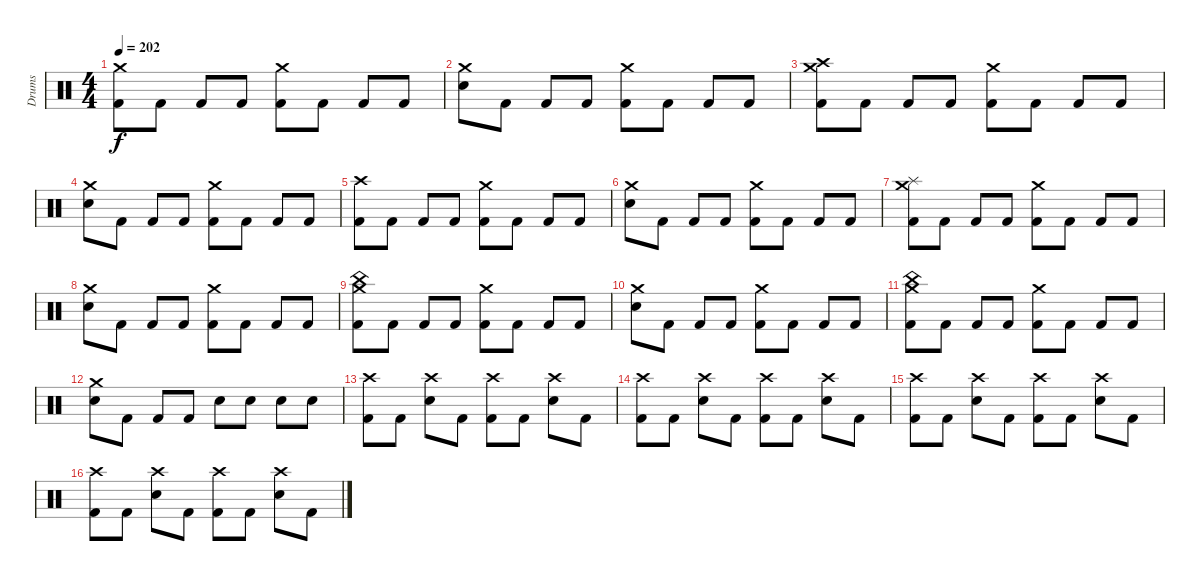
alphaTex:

\track ("Drums" "Drums") {instrument percussion}
\staff {score}
\articulation defaults
\ts (4 4)
\tempo 202
\clef neutral
\ks c
("Crash medium (hit)" "Kick (hit) 2").8{dy f} "Kick (hit) 2".8 "Kick (hit) 2".8 "Kick (hit) 2".8 ("Crash medium (hit)" "Kick (hit) 2").8 "Kick (hit) 2".8 "Kick (hit) 2".8 "Kick (hit) 2".8 |
("Crash medium (hit)" "Electric Snare (hit)").8 "Kick (hit) 2".8 "Kick (hit) 2".8 "Kick (hit) 2".8 ("Crash medium (hit)" "Kick (hit) 2").8 "Kick (hit) 2".8 "Kick (hit) 2".8 "Kick (hit) 2".8 |
("Crash medium (hit)" "Crash high (hit)" "Kick (hit) 2").8 "Kick (hit) 2".8 "Kick (hit) 2".8 "Kick (hit) 2".8 ("Crash medium (hit)" "Kick (hit) 2").8 "Kick (hit) 2".8 "Kick (hit) 2".8 "Kick (hit) 2".8 |
("Crash medium (hit)" "Electric Snare (hit)").8 "Kick (hit) 2".8 "Kick (hit) 2".8 "Kick (hit) 2".8 ("Crash medium (hit)" "Kick (hit) 2").8 "Kick (hit) 2".8 "Kick (hit) 2".8 "Kick (hit) 2".8 |
("Crash high (hit)" "Kick (hit) 2").8 "Kick (hit) 2".8 "Kick (hit) 2".8 "Kick (hit) 2".8 ("Crash medium (hit)" "Kick (hit) 2").8 "Kick (hit) 2".8 "Kick (hit) 2".8 "Kick (hit) 2".8 |
("Crash medium (hit)" "Electric Snare (hit)").8 "Kick (hit) 2".8 "Kick (hit) 2".8 "Kick (hit) 2".8 ("Crash medium (hit)" "Kick (hit) 2").8 "Kick (hit) 2".8 "Kick (hit) 2".8 "Kick (hit) 2".8 |
("Crash medium (hit)" "Splash (hit)" "Kick (hit) 2").8 "Kick (hit) 2".8 "Kick (hit) 2".8 "Kick (hit) 2".8 ("Crash medium (hit)" "Kick (hit) 2").8 "Kick (hit) 2".8 "Kick (hit) 2".8 "Kick (hit) 2".8 |
("Crash medium (hit)" "Electric Snare (hit)").8 "Kick (hit) 2".8 "Kick (hit) 2".8 "Kick (hit) 2".8 ("Crash medium (hit)" "Kick (hit) 2").8 "Kick (hit) 2".8 "Kick (hit) 2".8 "Kick (hit) 2".8 |
("Crash medium (hit)" "China (hit)" "Kick (hit) 2").8 "Kick (hit) 2".8 "Kick (hit) 2".8 "Kick (hit) 2".8 ("Crash medium (hit)" "Kick (hit) 2").8 "Kick (hit) 2".8 "Kick (hit) 2".8 "Kick (hit) 2".8 |
("Crash medium (hit)" "Electric Snare (hit)").8 "Kick (hit) 2".8 "Kick (hit) 2".8 "Kick (hit) 2".8 ("Crash medium (hit)" "Kick (hit) 2").8 "Kick (hit) 2".8 "Kick (hit) 2".8 "Kick (hit) 2".8 |
("Crash medium (hit)" "China (hit)" "Kick (hit) 2").8 "Kick (hit) 2".8 "Kick (hit) 2".8 "Kick (hit) 2".8 ("Crash medium (hit)" "Kick (hit) 2").8 "Kick (hit) 2".8 "Kick (hit) 2".8 "Kick (hit) 2".8 |
("Crash medium (hit)" "Electric Snare (hit)").8 "Kick (hit) 2".8 "Kick (hit) 2".8 "Kick (hit) 2".8 "Electric Snare (hit)".8 "Electric Snare (hit)".8 "Electric Snare (hit)".8 "Electric Snare (hit)".8 |
("Crash high (hit)" "Kick (hit) 2").8 "Kick (hit) 2".8 ("Crash high (hit)" "Electric Snare (hit)").8 "Kick (hit) 2".8 ("Crash high (hit)" "Kick (hit) 2").8 "Kick (hit) 2".8 ("Crash high (hit)" "Electric Snare (hit)").8 "Kick (hit) 2".8 |
("Crash high (hit)" "Kick (hit) 2").8 "Kick (hit) 2".8 ("Crash high (hit)" "Electric Snare (hit)").8 "Kick (hit) 2".8 ("Crash high (hit)" "Kick (hit) 2").8 "Kick (hit) 2".8 ("Crash high (hit)" "Electric Snare (hit)").8 "Kick (hit) 2".8 |
("Crash high (hit)" "Kick (hit) 2").8 "Kick (hit) 2".8 ("Crash high (hit)" "Electric Snare (hit)").8 "Kick (hit) 2".8 ("Crash high (hit)" "Kick (hit) 2").8 "Kick (hit) 2".8 ("Crash high (hit)" "Electric Snare (hit)").8 "Kick (hit) 2".8 |
("Crash high (hit)" "Kick (hit) 2").8 "Kick (hit) 2".8 ("Crash high (hit)" "Electric Snare (hit)").8 "Kick (hit) 2".8 ("Crash high (hit)" "Kick (hit) 2").8 "Kick (hit) 2".8 ("Crash high (hit)" "Electric Snare (hit)").8 "Kick (hit) 2".8
